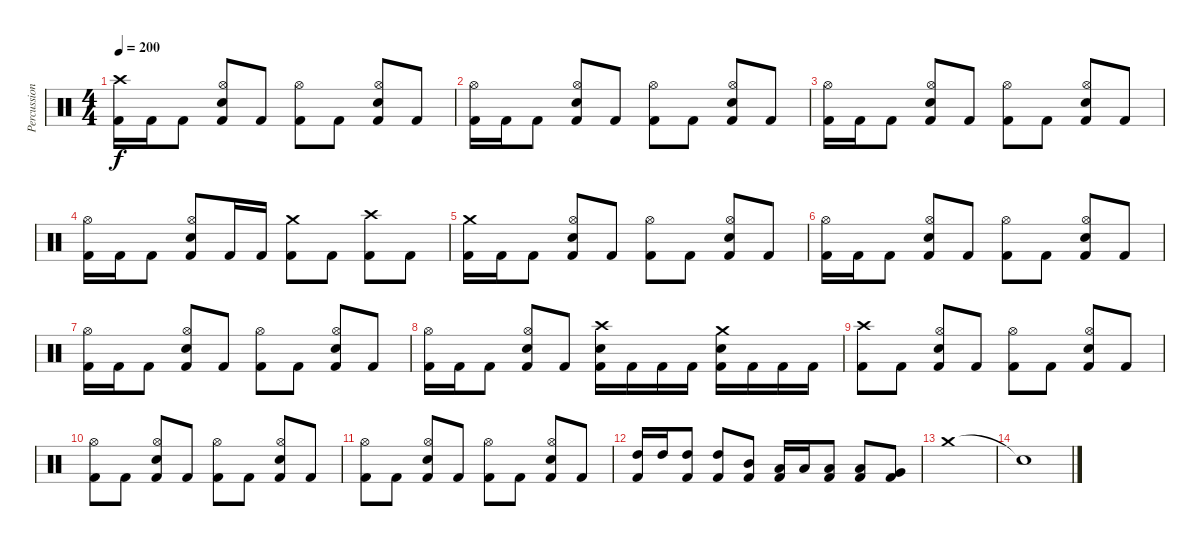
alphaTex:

\track ("Percussion" "Percussion") {instrument percussion}
\staff {score}
\articulation defaults
\ts (4 4)
\tempo 200
\clef neutral
\ks c
("Crash high (hit)" "Kick (hit) 2").16{dy f} "Kick (hit) 2".16 "Kick (hit) 2".8 ("Hi-Hat (open)" "Snare (hit) 2" "Kick (hit) 2").8 "Kick (hit) 2".8 ("Hi-Hat (open)" "Kick (hit) 2").8 "Kick (hit) 2".8 ("Hi-Hat (open)" "Snare (hit) 2" "Kick (hit) 2").8 "Kick (hit) 2".8 |
("Hi-Hat (open)" "Kick (hit) 2").16 "Kick (hit) 2".16 "Kick (hit) 2".8 ("Hi-Hat (open)" "Snare (hit) 2" "Kick (hit) 2").8 "Kick (hit) 2".8 ("Hi-Hat (open)" "Kick (hit) 2").8 "Kick (hit) 2".8 ("Hi-Hat (open)" "Snare (hit) 2" "Kick (hit) 2").8 "Kick (hit) 2".8 |
("Hi-Hat (open)" "Kick (hit) 2").16 "Kick (hit) 2".16 "Kick (hit) 2".8 ("Hi-Hat (open)" "Snare (hit) 2" "Kick (hit) 2").8 "Kick (hit) 2".8 ("Hi-Hat (open)" "Kick (hit) 2").8 "Kick (hit) 2".8 ("Hi-Hat (open)" "Snare (hit) 2" "Kick (hit) 2").8 "Kick (hit) 2".8 |
("Hi-Hat (open)" "Kick (hit) 2").16 "Kick (hit) 2".16 "Kick (hit) 2".8 ("Hi-Hat (open)" "Snare (hit) 2" "Kick (hit) 2").8 "Kick (hit) 2".16 "Kick (hit) 2".16 ("Crash medium (hit)" "Kick (hit) 2").8 "Kick (hit) 2".8 ("Crash high (hit)" "Kick (hit) 2").8 "Kick (hit) 2".8 |
("Crash medium (hit)" "Kick (hit) 2").16 "Kick (hit) 2".16 "Kick (hit) 2".8 ("Hi-Hat (open)" "Snare (hit) 2" "Kick (hit) 2").8 "Kick (hit) 2".8 ("Hi-Hat (open)" "Kick (hit) 2").8 "Kick (hit) 2".8 ("Hi-Hat (open)" "Snare (hit) 2" "Kick (hit) 2").8 "Kick (hit) 2".8 |
("Hi-Hat (open)" "Kick (hit) 2").16 "Kick (hit) 2".16 "Kick (hit) 2".8 ("Hi-Hat (open)" "Snare (hit) 2" "Kick (hit) 2").8 "Kick (hit) 2".8 ("Hi-Hat (open)" "Kick (hit) 2").8 "Kick (hit) 2".8 ("Hi-Hat (open)" "Snare (hit) 2" "Kick (hit) 2").8 "Kick (hit) 2".8 |
("Hi-Hat (open)" "Kick (hit) 2").16 "Kick (hit) 2".16 "Kick (hit) 2".8 ("Hi-Hat (open)" "Snare (hit) 2" "Kick (hit) 2").8 "Kick (hit) 2".8 ("Hi-Hat (open)" "Kick (hit) 2").8 "Kick (hit) 2".8 ("Hi-Hat (open)" "Snare (hit) 2" "Kick (hit) 2").8 "Kick (hit) 2".8 |
("Hi-Hat (open)" "Kick (hit) 2").16 "Kick (hit) 2".16 "Kick (hit) 2".8 ("Hi-Hat (open)" "Snare (hit) 2" "Kick (hit) 2").8 "Kick (hit) 2".8 ("Crash high (hit)" "Snare (hit) 2" "Kick (hit) 2").16 "Kick (hit) 2".16 "Kick (hit) 2".16 "Kick (hit) 2".16 ("Crash medium (hit)" "Snare (hit) 2" "Kick (hit) 2").16 "Kick (hit) 2".16 "Kick (hit) 2".16 "Kick (hit) 2".16 |
("Crash high (hit)" "Kick (hit) 2").8 "Kick (hit) 2".8 ("Hi-Hat (open)" "Snare (hit) 2" "Kick (hit) 2").8 "Kick (hit) 2".8 ("Hi-Hat (open)" "Kick (hit) 2").8 "Kick (hit) 2".8 ("Hi-Hat (open)" "Snare (hit) 2" "Kick (hit) 2").8 "Kick (hit) 2".8 |
("Hi-Hat (open)" "Kick (hit) 2").8 "Kick (hit) 2".8 ("Hi-Hat (open)" "Snare (hit) 2" "Kick (hit) 2").8 "Kick (hit) 2".8 ("Hi-Hat (open)" "Kick (hit) 2").8 "Kick (hit) 2".8 ("Hi-Hat (open)" "Snare (hit) 2" "Kick (hit) 2").8 "Kick (hit) 2".8 |
("Hi-Hat (open)" "Kick (hit) 2").8 "Kick (hit) 2".8 ("Hi-Hat (open)" "Snare (hit) 2" "Kick (hit) 2").8 "Kick (hit) 2".8 ("Hi-Hat (open)" "Kick (hit) 2").8 "Kick (hit) 2".8 ("Hi-Hat (open)" "Snare (hit) 2" "Kick (hit) 2").8 "Kick (hit) 2".8 |
("High Tom (hit)" "Kick (hit) 2").16 "High Tom (hit)".16 ("High Tom (hit)" "Kick (hit) 2").8 ("High Tom (hit)" "Kick (hit) 2").8 ("Mid Tom (hit)" "Kick (hit) 2").8 ("Low Tom (hit)" "Kick (hit) 2").16 "Low Tom (hit)".16 ("Low Tom (hit)" "Kick (hit) 2").8 ("Low Tom (hit)" "Kick (hit) 2").8 ("Very Low Tom (hit)" "Kick (hit) 2").8 |
"Crash medium (hit)".1 |
"Snare (hit)"{t}.1
